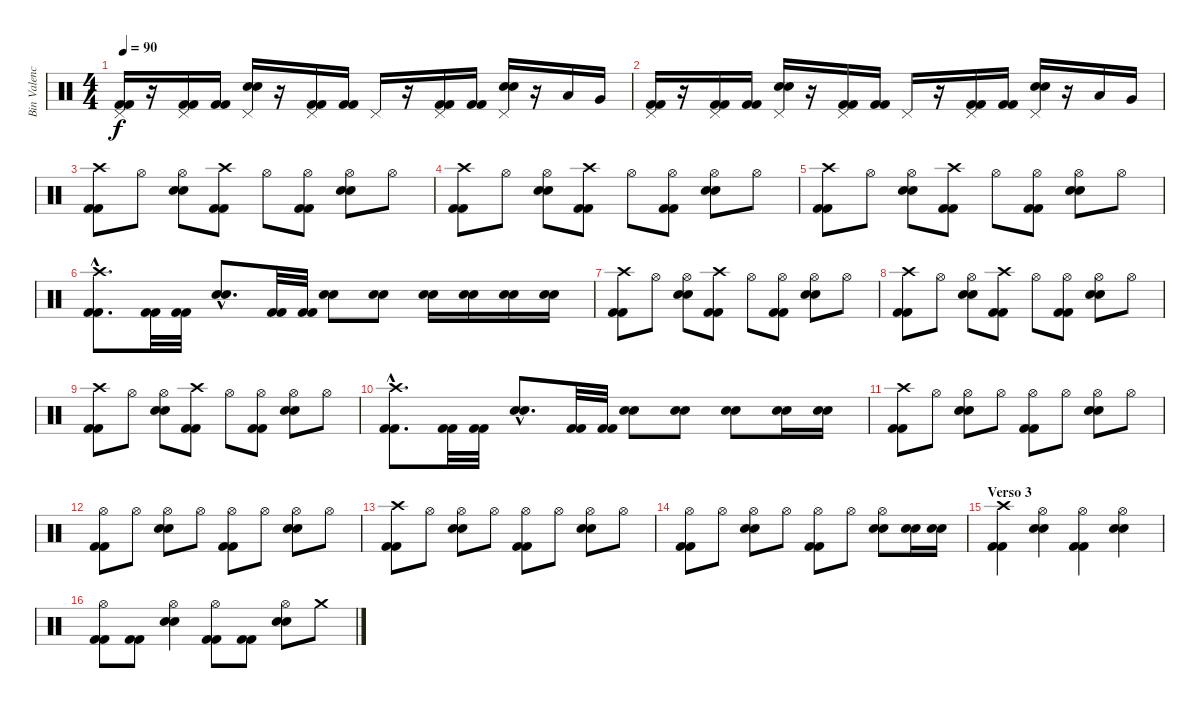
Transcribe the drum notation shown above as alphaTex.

\track ("Bin Valencia" "Bin Valenc") {instrument percussion}
\staff {score}
\articulation defaults
\ts (4 4)
\tempo 90
\clef neutral
\ks c
("Pedal Hi-Hat (hit)" "Kick (hit) 2" "Kick (hit) 2").16{dy f} r.16 ("Pedal Hi-Hat (hit)" "Kick (hit) 2" "Kick (hit) 2").16 ("Kick (hit) 2" "Kick (hit) 2").16 ("Pedal Hi-Hat (hit)" "Electric Snare (hit)" "Electric Snare (hit)").16 r.16 ("Pedal Hi-Hat (hit)" "Kick (hit) 2" "Kick (hit) 2").16 ("Kick (hit) 2" "Kick (hit) 2").16 "Pedal Hi-Hat (hit)".16 r.16 ("Pedal Hi-Hat (hit)" "Kick (hit) 2" "Kick (hit) 2").16 ("Kick (hit) 2" "Kick (hit) 2").16 ("Pedal Hi-Hat (hit)" "Electric Snare (hit)" "Electric Snare (hit)").16 r.16 "Low Tom (hit)".16 "Very Low Tom (hit)".16 |
("Pedal Hi-Hat (hit)" "Kick (hit) 2" "Kick (hit) 2").16 r.16 ("Pedal Hi-Hat (hit)" "Kick (hit) 2" "Kick (hit) 2").16 ("Kick (hit) 2" "Kick (hit) 2").16 ("Pedal Hi-Hat (hit)" "Electric Snare (hit)" "Electric Snare (hit)").16 r.16 ("Pedal Hi-Hat (hit)" "Kick (hit) 2" "Kick (hit) 2").16 ("Kick (hit) 2" "Kick (hit) 2").16 "Pedal Hi-Hat (hit)".16 r.16 ("Pedal Hi-Hat (hit)" "Kick (hit) 2" "Kick (hit) 2").16 ("Kick (hit) 2" "Kick (hit) 2").16 ("Pedal Hi-Hat (hit)" "Electric Snare (hit)" "Electric Snare (hit)").16 r.16 "Low Tom (hit)".16 "Very Low Tom (hit)".16 |
("Crash high (hit)" "Kick (hit) 2" "Kick (hit) 2").8 "Hi-Hat (open)".8 ("Hi-Hat (open)" "Snare (hit) 2" "Snare (hit) 2").8 ("Crash high (hit)" "Kick (hit) 2" "Kick (hit) 2").8 "Hi-Hat (open)".8 ("Hi-Hat (open)" "Kick (hit) 2" "Kick (hit) 2").8 ("Hi-Hat (open)" "Snare (hit) 2" "Snare (hit) 2").8 "Hi-Hat (open)".8 |
("Crash high (hit)" "Kick (hit) 2" "Kick (hit) 2").8 "Hi-Hat (open)".8 ("Hi-Hat (open)" "Snare (hit) 2" "Snare (hit) 2").8 ("Crash high (hit)" "Kick (hit) 2" "Kick (hit) 2").8 "Hi-Hat (open)".8 ("Hi-Hat (open)" "Kick (hit) 2" "Kick (hit) 2").8 ("Hi-Hat (open)" "Snare (hit) 2" "Snare (hit) 2").8 "Hi-Hat (open)".8 |
("Crash high (hit)" "Kick (hit) 2" "Kick (hit) 2").8 "Hi-Hat (open)".8 ("Hi-Hat (open)" "Snare (hit) 2" "Snare (hit) 2").8 ("Crash high (hit)" "Kick (hit) 2" "Kick (hit) 2").8 "Hi-Hat (open)".8 ("Hi-Hat (open)" "Kick (hit) 2" "Kick (hit) 2").8 ("Hi-Hat (open)" "Snare (hit) 2" "Snare (hit) 2").8 "Hi-Hat (open)".8 |
("Crash high (hit)"{hac} "Kick (hit) 2"{hac} "Kick (hit) 2"{hac}).8{d} ("Kick (hit) 2" "Kick (hit) 2").32 ("Kick (hit) 2" "Kick (hit) 2").32 ("Snare (hit) 2"{hac} "Snare (hit) 2"{hac}).8{d} ("Kick (hit) 2" "Kick (hit) 2").32 ("Kick (hit) 2" "Kick (hit) 2").32 ("Snare (hit) 2" "Snare (hit) 2").8 ("Snare (hit) 2" "Snare (hit) 2").8 ("Snare (hit) 2" "Snare (hit) 2").16 ("Snare (hit) 2" "Snare (hit) 2").16 ("Snare (hit) 2" "Snare (hit) 2").16 ("Snare (hit) 2" "Snare (hit) 2").16 |
("Crash high (hit)" "Kick (hit) 2" "Kick (hit) 2").8 "Hi-Hat (open)".8 ("Hi-Hat (open)" "Snare (hit) 2" "Snare (hit) 2").8 ("Crash high (hit)" "Kick (hit) 2" "Kick (hit) 2").8 "Hi-Hat (open)".8 ("Hi-Hat (open)" "Kick (hit) 2" "Kick (hit) 2").8 ("Hi-Hat (open)" "Snare (hit) 2" "Snare (hit) 2").8 "Hi-Hat (open)".8 |
("Crash high (hit)" "Kick (hit) 2" "Kick (hit) 2").8 "Hi-Hat (open)".8 ("Hi-Hat (open)" "Snare (hit) 2" "Snare (hit) 2").8 ("Crash high (hit)" "Kick (hit) 2" "Kick (hit) 2").8 "Hi-Hat (open)".8 ("Hi-Hat (open)" "Kick (hit) 2" "Kick (hit) 2").8 ("Hi-Hat (open)" "Snare (hit) 2" "Snare (hit) 2").8 "Hi-Hat (open)".8 |
("Crash high (hit)" "Kick (hit) 2" "Kick (hit) 2").8 "Hi-Hat (open)".8 ("Hi-Hat (open)" "Snare (hit) 2" "Snare (hit) 2").8 ("Crash high (hit)" "Kick (hit) 2" "Kick (hit) 2").8 "Hi-Hat (open)".8 ("Hi-Hat (open)" "Kick (hit) 2" "Kick (hit) 2").8 ("Hi-Hat (open)" "Snare (hit) 2" "Snare (hit) 2").8 "Hi-Hat (open)".8 |
("Crash high (hit)"{hac} "Kick (hit) 2"{hac} "Kick (hit) 2"{hac}).8{d} ("Kick (hit) 2" "Kick (hit) 2").32 ("Kick (hit) 2" "Kick (hit) 2").32 ("Snare (hit) 2"{hac} "Snare (hit) 2"{hac}).8{d} ("Kick (hit) 2" "Kick (hit) 2").32 ("Kick (hit) 2" "Kick (hit) 2").32 ("Snare (hit) 2" "Snare (hit) 2").8 ("Snare (hit) 2" "Snare (hit) 2").8 ("Snare (hit) 2" "Snare (hit) 2").8 ("Snare (hit) 2" "Snare (hit) 2").16 ("Snare (hit) 2" "Snare (hit) 2").16 |
("Crash high (hit)" "Kick (hit) 2" "Kick (hit) 2").8 "Hi-Hat (open)".8 ("Hi-Hat (open)" "Snare (hit) 2" "Snare (hit) 2").8 "Hi-Hat (open)".8 ("Hi-Hat (open)" "Kick (hit) 2" "Kick (hit) 2").8 "Hi-Hat (open)".8 ("Hi-Hat (open)" "Snare (hit) 2" "Snare (hit) 2").8 "Hi-Hat (open)".8 |
("Hi-Hat (open)" "Kick (hit) 2" "Kick (hit) 2").8 "Hi-Hat (open)".8 ("Hi-Hat (open)" "Snare (hit) 2" "Snare (hit) 2").8 "Hi-Hat (open)".8 ("Hi-Hat (open)" "Kick (hit) 2" "Kick (hit) 2").8 "Hi-Hat (open)".8 ("Hi-Hat (open)" "Snare (hit) 2" "Snare (hit) 2").8 "Hi-Hat (open)".8 |
("Crash high (hit)" "Kick (hit) 2" "Kick (hit) 2").8 "Hi-Hat (open)".8 ("Hi-Hat (open)" "Snare (hit) 2" "Snare (hit) 2").8 "Hi-Hat (open)".8 ("Hi-Hat (open)" "Kick (hit) 2" "Kick (hit) 2").8 "Hi-Hat (open)".8 ("Hi-Hat (open)" "Snare (hit) 2" "Snare (hit) 2").8 "Hi-Hat (open)".8 |
("Hi-Hat (open)" "Kick (hit) 2" "Kick (hit) 2").8 "Hi-Hat (open)".8 ("Hi-Hat (open)" "Snare (hit) 2" "Snare (hit) 2").8 "Hi-Hat (open)".8 ("Hi-Hat (open)" "Kick (hit) 2" "Kick (hit) 2").8 "Hi-Hat (open)".8 ("Hi-Hat (open)" "Snare (hit) 2" "Snare (hit) 2").8 ("Snare (hit) 2" "Snare (hit) 2").16 ("Snare (hit) 2" "Snare (hit) 2").16 |
\section ("" "Verso 3")
("Crash high (hit)" "Kick (hit) 2" "Kick (hit) 2").4 ("Hi-Hat (open)" "Snare (hit) 2" "Snare (hit) 2").4 ("Hi-Hat (open)" "Kick (hit) 2" "Kick (hit) 2").4 ("Hi-Hat (open)" "Snare (hit) 2" "Snare (hit) 2").4 |
("Hi-Hat (open)" "Kick (hit) 2" "Kick (hit) 2").8 ("Kick (hit) 2" "Kick (hit) 2").8 ("Hi-Hat (open)" "Snare (hit) 2" "Snare (hit) 2").4 ("Hi-Hat (open)" "Kick (hit) 2" "Kick (hit) 2").8 ("Kick (hit) 2" "Kick (hit) 2").8 ("Hi-Hat (open)" "Snare (hit) 2" "Snare (hit) 2").8 "Crash medium (hit)".8
